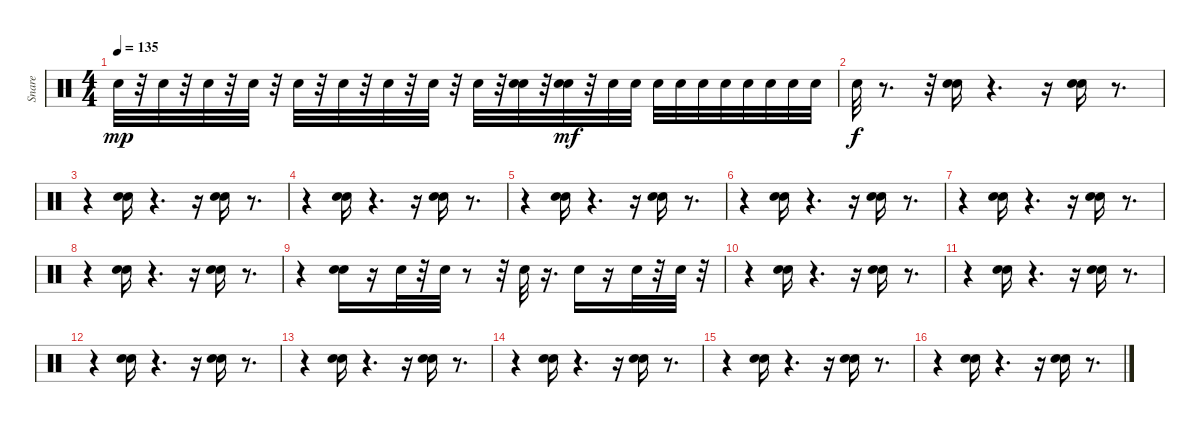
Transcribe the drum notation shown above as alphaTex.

\track ("Snare" "Snare") {instrument percussion}
\staff {score}
\articulation defaults
\ts (4 4)
\tempo 135
\clef neutral
\ks c "Snare (hit) 2".32{dy mp}
r.32 "Snare (hit) 2".32 r.32 "Snare (hit) 2".32 r.32 "Snare (hit) 2".32 r.32 "Snare (hit) 2".32 r.32 "Snare (hit) 2".32 r.32 "Snare (hit) 2".32 r.32 "Snare (hit) 2".32 r.32 "Snare (hit) 2".32 r.32 ("Snare (hit) 2" "Snare (hit) 2").32 r.32 ("Snare (hit) 2" "Snare (hit) 2").32{dy mf} r.32 "Snare (hit) 2".32 "Snare (hit) 2".32 "Snare (hit) 2".32 "Snare (hit) 2".32 "Snare (hit) 2".32 "Snare (hit) 2".32 "Snare (hit) 2".32 "Snare (hit) 2".32 "Snare (hit) 2".32 "Snare (hit) 2".32 |
"Snare (hit) 2".32{dy f} r.8{d} r.32 ("Hand Clap (hit)" "Snare (hit) 2").16 r.4{d} r.16 ("Hand Clap (hit)" "Snare (hit) 2").16 r.8{d} |
r.4 ("Snare (hit) 2" "Hand Clap (hit)").16 r.4{d} r.16 ("Snare (hit) 2" "Hand Clap (hit)").16 r.8{d} |
r.4 ("Hand Clap (hit)" "Snare (hit) 2").16 r.4{d} r.16 ("Hand Clap (hit)" "Snare (hit) 2").16 r.8{d} |
r.4 ("Hand Clap (hit)" "Snare (hit) 2").16 r.4{d} r.16 ("Hand Clap (hit)" "Snare (hit) 2").16 r.8{d} |
r.4 ("Hand Clap (hit)" "Snare (hit) 2").16 r.4{d} r.16 ("Hand Clap (hit)" "Snare (hit) 2").16 r.8{d} |
r.4 ("Snare (hit) 2" "Hand Clap (hit)").16 r.4{d} r.16 ("Snare (hit) 2" "Hand Clap (hit)").16 r.8{d} |
r.4 ("Hand Clap (hit)" "Snare (hit) 2").16 r.4{d} r.16 ("Hand Clap (hit)" "Snare (hit) 2").16 r.8{d} |
r.4 ("Snare (hit) 2" "Hand Clap (hit)").16 r.16 "Snare (hit) 2".32 r.32 "Snare (hit) 2".32 r.8 r.32 "Snare (hit) 2".32 r.16{d} "Snare (hit) 2".16 r.16 "Snare (hit) 2".32 r.32 "Snare (hit) 2".32 r.32 |
r.4 ("Hand Clap (hit)" "Snare (hit) 2").16 r.4{d} r.16 ("Hand Clap (hit)" "Snare (hit) 2").16 r.8{d} |
r.4 ("Snare (hit) 2" "Hand Clap (hit)").16 r.4{d} r.16 ("Snare (hit) 2" "Hand Clap (hit)").16 r.8{d} |
r.4 ("Hand Clap (hit)" "Snare (hit) 2").16 r.4{d} r.16 ("Hand Clap (hit)" "Snare (hit) 2").16 r.8{d} |
r.4 ("Hand Clap (hit)" "Snare (hit) 2").16 r.4{d} r.16 ("Hand Clap (hit)" "Snare (hit) 2").16 r.8{d} |
r.4 ("Hand Clap (hit)" "Snare (hit) 2").16 r.4{d} r.16 ("Hand Clap (hit)" "Snare (hit) 2").16 r.8{d} |
r.4 ("Snare (hit) 2" "Hand Clap (hit)").16 r.4{d} r.16 ("Snare (hit) 2" "Hand Clap (hit)").16 r.8{d} |
r.4 ("Hand Clap (hit)" "Snare (hit) 2").16 r.4{d} r.16 ("Hand Clap (hit)" "Snare (hit) 2").16 r.8{d}
